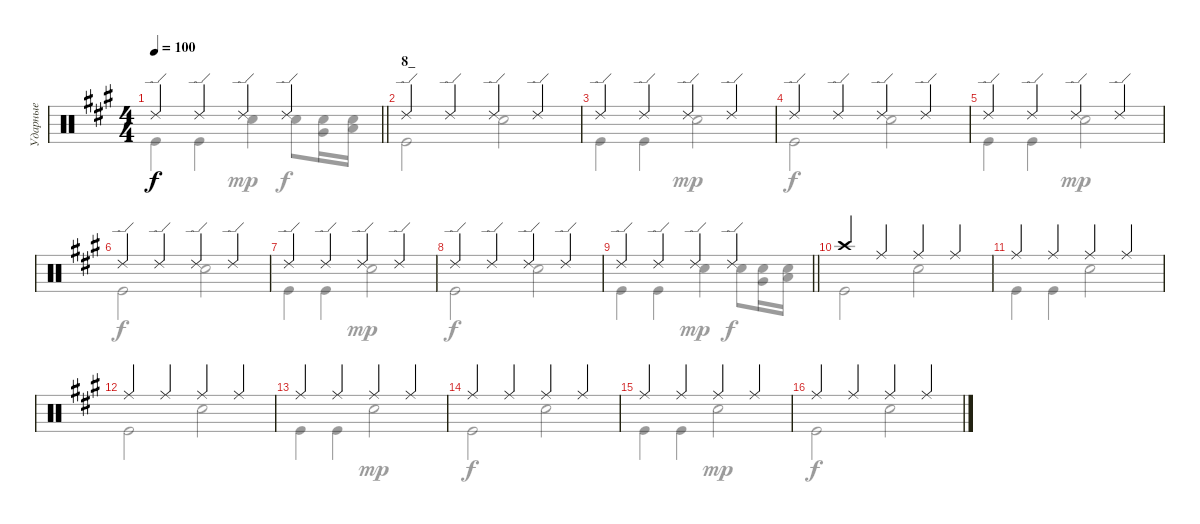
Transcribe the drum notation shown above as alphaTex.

\track ("Ударные" "Ударные") {instrument percussion}
\staff {score}
\articulation defaults
\voice
\ts (4 4)
\tempo 100
\clef neutral
\barLineRight lightlight
\ks f#minor "Ride (edge) 2".4{dy f} "Ride (edge) 2".4 "Ride (edge) 2".4 "Ride (edge) 2".4
|
\section ("" "8_")
"Ride (edge) 2".4 "Ride (edge) 2".4 "Ride (edge) 2".4 "Ride (edge) 2".4 |
"Ride (edge) 2".4 "Ride (edge) 2".4 "Ride (edge) 2".4 "Ride (edge) 2".4 |
"Ride (edge) 2".4 "Ride (edge) 2".4 "Ride (edge) 2".4 "Ride (edge) 2".4 |
"Ride (edge) 2".4 "Ride (edge) 2".4 "Ride (edge) 2".4 "Ride (edge) 2".4 |
"Ride (edge) 2".4 "Ride (edge) 2".4 "Ride (edge) 2".4 "Ride (edge) 2".4 |
"Ride (edge) 2".4 "Ride (edge) 2".4 "Ride (edge) 2".4 "Ride (edge) 2".4 |
"Ride (edge) 2".4 "Ride (edge) 2".4 "Ride (edge) 2".4 "Ride (edge) 2".4 |
\barLineRight lightlight "Ride (edge) 2".4 "Ride (edge) 2".4 "Ride (edge) 2".4 "Ride (edge) 2".4
|
"Crash high (hit)".4 "Ride (middle)".4 "Ride (middle)".4 "Ride (middle)".4 |
"Ride (middle)".4 "Ride (middle)".4 "Ride (middle)".4 "Ride (middle)".4 |
"Ride (middle)".4 "Ride (middle)".4 "Ride (middle)".4 "Ride (middle)".4 |
"Ride (middle)".4 "Ride (middle)".4 "Ride (middle)".4 "Ride (middle)".4 |
"Ride (middle)".4 "Ride (middle)".4 "Ride (middle)".4 "Ride (middle)".4 |
"Ride (middle)".4 "Ride (middle)".4 "Ride (middle)".4 "Ride (middle)".4 |
"Ride (middle)".4 "Ride (middle)".4 "Ride (middle)".4 "Ride (middle)".4
\voice
\clef neutral
\ottava regular
\simile none
\barLineRight lightlight
\ks f#minor "Kick (hit)".4{dy f} "Kick (hit)".4 "Snare (hit) 2".4{dy mp} "Snare (hit) 2".8{dy f}
("Snare (hit) 2" "Very Low Tom (hit)").16 ("Snare (hit) 2" "Low Floor Tom (hit)").16 |
"Kick (hit)".2 "Snare (hit) 2".2 |
"Kick (hit)".4 "Kick (hit)".4 "Snare (hit) 2".2{dy mp} |
"Kick (hit)".2{dy f} "Snare (hit) 2".2 |
"Kick (hit)".4 "Kick (hit)".4 "Snare (hit) 2".2{dy mp} |
"Kick (hit)".2{dy f} "Snare (hit) 2".2 |
"Kick (hit)".4 "Kick (hit)".4 "Snare (hit) 2".2{dy mp} |
"Kick (hit)".2{dy f} "Snare (hit) 2".2 |
\barLineRight lightlight "Kick (hit)".4 "Kick (hit)".4 "Snare (hit) 2".4{dy mp} "Snare (hit) 2".8{dy f}
("Snare (hit) 2" "Very Low Tom (hit)").16 ("Snare (hit) 2" "Low Floor Tom (hit)").16 |
"Kick (hit)".2 "Snare (hit) 2".2 |
"Kick (hit)".4 "Kick (hit)".4 "Snare (hit) 2".2 |
"Kick (hit)".2 "Snare (hit) 2".2 |
"Kick (hit)".4 "Kick (hit)".4 "Snare (hit) 2".2{dy mp} |
"Kick (hit)".2{dy f} "Snare (hit) 2".2 |
"Kick (hit)".4 "Kick (hit)".4 "Snare (hit) 2".2{dy mp} |
"Kick (hit)".2{dy f} "Snare (hit) 2".2
